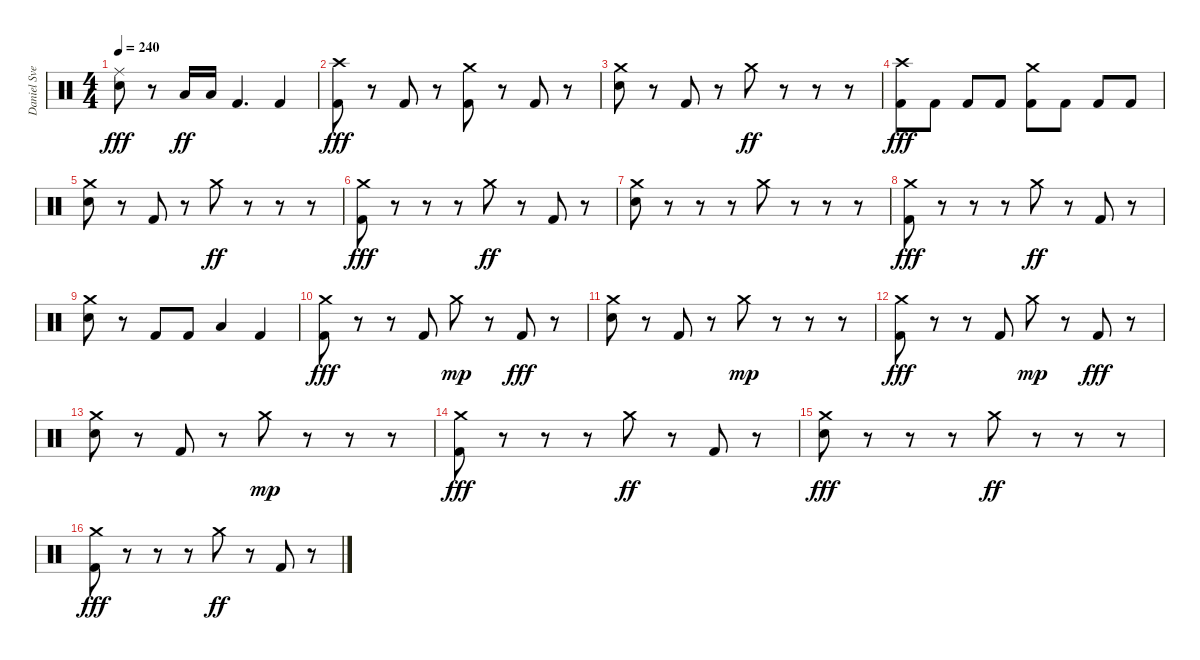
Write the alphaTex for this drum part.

\track ("Daniel Svensson" "Daniel Sve") {instrument percussion}
\staff {score}
\articulation defaults
\ts (4 4)
\tempo 240
\clef neutral
\ks c
("Ride (middle)" "Electric Snare (hit)").8{dy fff} r.8 "Low Floor Tom (hit)".16{dy ff} "Low Floor Tom (hit)".16 "Kick (hit) 2".4{d} "Kick (hit) 2".4 |
("Crash high (hit)" "Kick (hit) 2").8{dy fff} r.8 "Kick (hit) 2".8 r.8 ("Crash medium (hit)" "Kick (hit) 2").8 r.8 "Kick (hit) 2".8 r.8 |
("Crash medium (hit)" "Electric Snare (hit)").8 r.8 "Kick (hit) 2".8 r.8 "Crash medium (hit)".8{dy ff} r.8 r.8 r.8 |
("Crash high (hit)" "Kick (hit) 2").8{dy fff} "Kick (hit) 2".8 "Kick (hit) 2".8 "Kick (hit) 2".8 ("Crash medium (hit)" "Kick (hit) 2").8 "Kick (hit) 2".8 "Kick (hit) 2".8 "Kick (hit) 2".8 |
("Crash medium (hit)" "Electric Snare (hit)").8 r.8 "Kick (hit) 2".8 r.8 "Crash medium (hit)".8{dy ff} r.8 r.8 r.8 |
("Crash medium (hit)" "Kick (hit) 2").8{dy fff} r.8 r.8 r.8 "Crash medium (hit)".8{dy ff} r.8 "Kick (hit) 2".8 r.8 |
("Crash medium (hit)" "Electric Snare (hit)").8 r.8 r.8 r.8 "Crash medium (hit)".8 r.8 r.8 r.8 |
("Crash medium (hit)" "Kick (hit) 2").8{dy fff} r.8 r.8 r.8 "Crash medium (hit)".8{dy ff} r.8 "Kick (hit) 2".8 r.8 |
("Crash medium (hit)" "Electric Snare (hit)").8 r.8 "Kick (hit) 2".8 "Kick (hit) 2".8 "Low Floor Tom (hit)".4 "Kick (hit) 2".4 |
("Crash medium (hit)" "Kick (hit) 2").8{dy fff} r.8 r.8 "Kick (hit) 2".8 "Crash medium (hit)".8{dy mp} r.8 "Kick (hit) 2".8{dy fff} r.8 |
("Crash medium (hit)" "Electric Snare (hit)").8 r.8 "Kick (hit) 2".8 r.8 "Crash medium (hit)".8{dy mp} r.8 r.8 r.8 |
("Crash medium (hit)" "Kick (hit) 2").8{dy fff} r.8 r.8 "Kick (hit) 2".8 "Crash medium (hit)".8{dy mp} r.8 "Kick (hit) 2".8{dy fff} r.8 |
("Crash medium (hit)" "Electric Snare (hit)").8 r.8 "Kick (hit) 2".8 r.8 "Crash medium (hit)".8{dy mp} r.8 r.8 r.8 |
("Crash medium (hit)" "Kick (hit) 2").8{dy fff} r.8 r.8 r.8 "Crash medium (hit)".8{dy ff} r.8 "Kick (hit) 2".8 r.8 |
("Crash medium (hit)" "Electric Snare (hit)").8{dy fff} r.8 r.8 r.8 "Crash medium (hit)".8{dy ff} r.8 r.8 r.8 |
("Crash medium (hit)" "Kick (hit) 2").8{dy fff} r.8 r.8 r.8 "Crash medium (hit)".8{dy ff} r.8 "Kick (hit) 2".8 r.8
